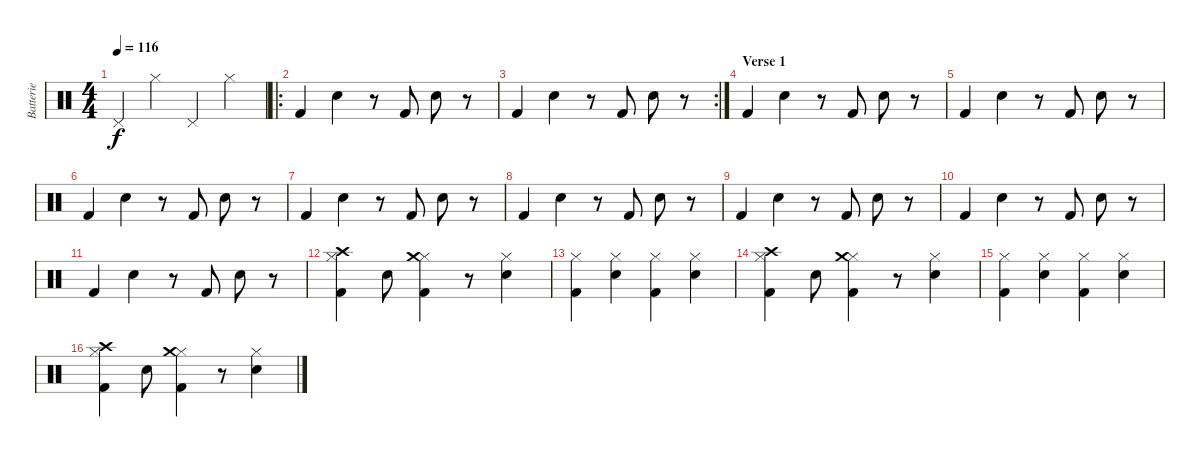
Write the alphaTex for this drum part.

\track ("Batterie" "Batterie") {instrument percussion}
\staff {score}
\articulation defaults
\ts (4 4)
\tempo 116
\clef neutral
\ks c "Pedal Hi-Hat (hit)".4{dy f} "Hi-Hat (closed)".4 "Pedal Hi-Hat (hit)".4 "Hi-Hat (closed)".4
|
\ro "Kick (hit) 2".4 "Snare (hit) 2".4
r.8 "Kick (hit) 2".8 "Snare (hit) 2".8 r.8 |
\rc 2 "Kick (hit) 2".4 "Snare (hit) 2".4
r.8 "Kick (hit) 2".8 "Snare (hit) 2".8 r.8 |
\section ("" "Verse 1")
"Kick (hit) 2".4 "Snare (hit) 2".4 r.8 "Kick (hit) 2".8 "Snare (hit) 2".8 r.8 |
"Kick (hit) 2".4 "Snare (hit) 2".4 r.8 "Kick (hit) 2".8 "Snare (hit) 2".8 r.8 |
"Kick (hit) 2".4 "Snare (hit) 2".4 r.8 "Kick (hit) 2".8 "Snare (hit) 2".8 r.8 |
"Kick (hit) 2".4 "Snare (hit) 2".4 r.8 "Kick (hit) 2".8 "Snare (hit) 2".8 r.8 |
"Kick (hit) 2".4 "Snare (hit) 2".4 r.8 "Kick (hit) 2".8 "Snare (hit) 2".8 r.8 |
"Kick (hit) 2".4 "Snare (hit) 2".4 r.8 "Kick (hit) 2".8 "Snare (hit) 2".8 r.8 |
"Kick (hit) 2".4 "Snare (hit) 2".4 r.8 "Kick (hit) 2".8 "Snare (hit) 2".8 r.8 |
"Kick (hit) 2".4 "Snare (hit) 2".4 r.8 "Kick (hit) 2".8 "Snare (hit) 2".8 r.8 |
("Hi-Hat (closed)" "Crash high (hit)" "Kick (hit) 2").4 "Snare (hit) 2".8 ("Hi-Hat (closed)" "Crash medium (hit)" "Kick (hit) 2").4 r.8 ("Hi-Hat (closed)" "Snare (hit) 2").4 |
("Hi-Hat (closed)" "Kick (hit) 2").4 ("Hi-Hat (closed)" "Snare (hit) 2").4 ("Hi-Hat (closed)" "Kick (hit) 2").4 ("Hi-Hat (closed)" "Snare (hit) 2").4 |
("Hi-Hat (closed)" "Crash high (hit)" "Kick (hit) 2").4 "Snare (hit) 2".8 ("Hi-Hat (closed)" "Crash medium (hit)" "Kick (hit) 2").4 r.8 ("Hi-Hat (closed)" "Snare (hit) 2").4 |
("Hi-Hat (closed)" "Kick (hit) 2").4 ("Hi-Hat (closed)" "Snare (hit) 2").4 ("Hi-Hat (closed)" "Kick (hit) 2").4 ("Hi-Hat (closed)" "Snare (hit) 2").4 |
("Hi-Hat (closed)" "Crash high (hit)" "Kick (hit) 2").4 "Snare (hit) 2".8 ("Hi-Hat (closed)" "Crash medium (hit)" "Kick (hit) 2").4 r.8 ("Hi-Hat (closed)" "Snare (hit) 2").4
